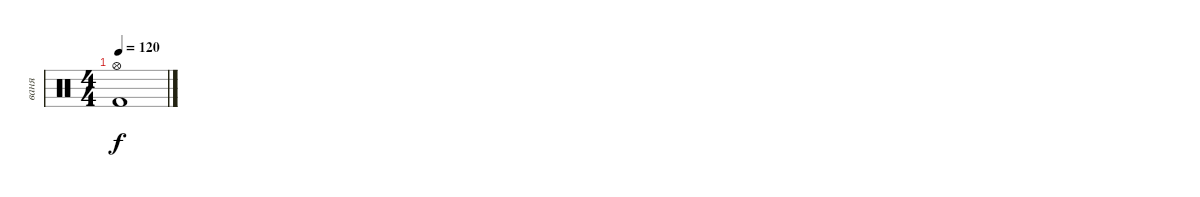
\track ("ваня" "ваня") {instrument percussion}
\staff {score}
\articulation defaults
\ts (4 4)
\tempo 120
\clef neutral
\ks c
("Hi-Hat (open)" "Kick (hit) 2").1{dy f}
